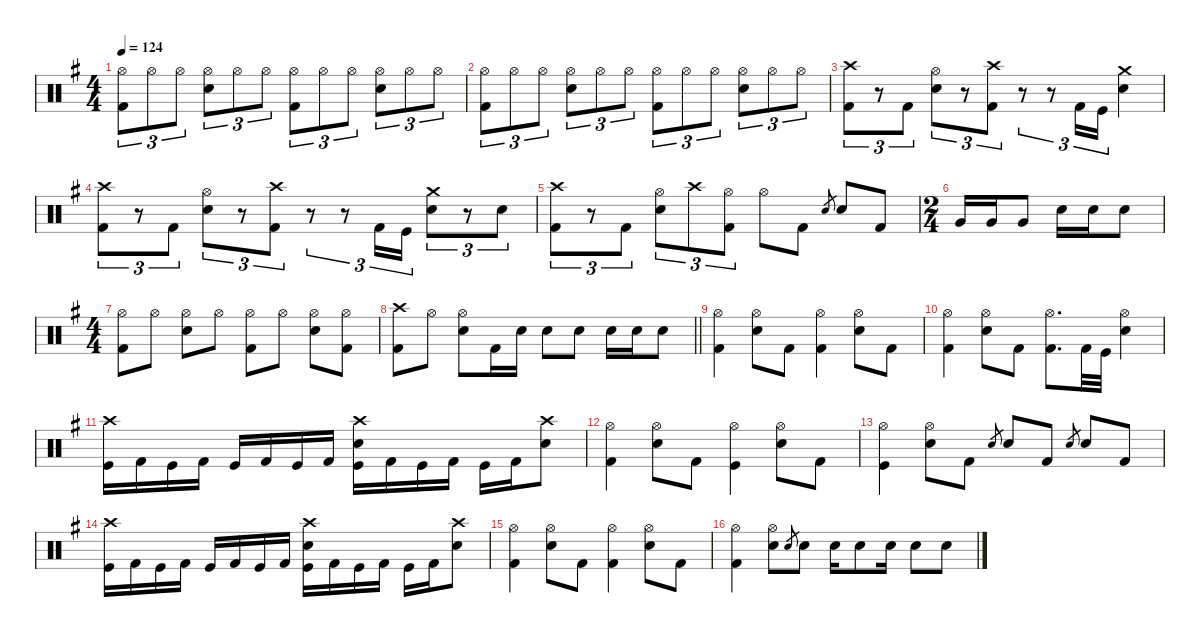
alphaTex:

\defaultSystemsLayout 4
\hideDynamics
\bracketExtendMode nobrackets
\singleTrackTrackNamePolicy hidden
\multiTrackTrackNamePolicy hidden
\otherSystemsTrackNameOrientation horizontal
\track ("Drums" "drm.") {defaultSystemsLayout 4 instrument percussion}
\staff {score}
\articulation defaults
\ts (4 4)
\tempo 124
\clef neutral
\ks eminor
("Hi-Hat (open)"{acc forcenatural} "Kick (hit) 2"{acc forcenatural}).8{tu (3 2) dy mf beam Down} "Hi-Hat (open)"{acc forcenatural}.8{tu (3 2) beam Down} "Hi-Hat (open)"{acc forcenatural}.8{tu (3 2) beam Down} ("Hi-Hat (open)"{acc forcenatural} "Snare (hit) 2"{acc forcenatural}).8{tu (3 2) beam Down} "Hi-Hat (open)"{acc forcenatural}.8{tu (3 2) beam Down} "Hi-Hat (open)"{acc forcenatural}.8{tu (3 2) beam Down} ("Hi-Hat (open)"{acc forcenatural} "Kick (hit) 2"{acc forcenatural}).8{tu (3 2) beam Down} "Hi-Hat (open)"{acc forcenatural}.8{tu (3 2) beam Down} "Hi-Hat (open)"{acc forcenatural}.8{tu (3 2) beam Down} ("Hi-Hat (open)"{acc forcenatural} "Snare (hit) 2"{acc forcenatural}).8{tu (3 2) beam Down} "Hi-Hat (open)"{acc forcenatural}.8{tu (3 2) beam Down} "Hi-Hat (open)"{acc forcenatural}.8{tu (3 2) beam Down} |
("Hi-Hat (open)"{acc forcenatural} "Kick (hit) 2"{acc forcenatural}).8{tu (3 2) beam Down} "Hi-Hat (open)"{acc forcenatural}.8{tu (3 2) beam Down} "Hi-Hat (open)"{acc forcenatural}.8{tu (3 2) beam Down} ("Hi-Hat (open)"{acc forcenatural} "Snare (hit) 2"{acc forcenatural}).8{tu (3 2) beam Down} "Hi-Hat (open)"{acc forcenatural}.8{tu (3 2) beam Down} "Hi-Hat (open)"{acc forcenatural}.8{tu (3 2) beam Down} ("Hi-Hat (open)"{acc forcenatural} "Kick (hit) 2"{acc forcenatural}).8{tu (3 2) beam Down} "Hi-Hat (open)"{acc forcenatural}.8{tu (3 2) beam Down} "Hi-Hat (open)"{acc forcenatural}.8{tu (3 2) beam Down} ("Hi-Hat (open)"{acc forcenatural} "Snare (hit) 2"{acc forcenatural}).8{tu (3 2) beam Down} "Hi-Hat (open)"{acc forcenatural}.8{tu (3 2) beam Down} "Hi-Hat (open)"{acc forcenatural}.8{tu (3 2) beam Down} |
("Crash high (hit)"{acc forcenatural} "Kick (hit) 2"{acc forcenatural}).8{tu (3 2) beam Down} r.8{tu (3 2) beam Down} "Kick (hit) 2"{acc forcenatural}.8{tu (3 2) dy ff beam Down} ("Hi-Hat (open)"{acc forcenatural} "Snare (hit) 2"{acc forcenatural}).8{tu (3 2) dy mp beam Down} r.8{tu (3 2) beam Down} ("Crash high (hit)"{acc forcenatural} "Kick (hit) 2"{acc forcenatural}).8{tu (3 2) beam Down} r.8{tu (3 2) beam Down} r.8{tu (3 2) beam Down} "Kick (hit) 2"{acc forcenatural}.16{tu (3 2) dy ff beam Up} "Kick (hit)"{acc forcenatural}.16{tu (3 2) beam Up} ("Crash medium (hit)"{acc forcenatural} "Snare (hit) 2"{acc forcenatural}).4{dy mf beam Down} |
("Crash high (hit)"{acc forcenatural} "Kick (hit) 2"{acc forcenatural}).8{tu (3 2) beam Down} r.8{tu (3 2) beam Down} "Kick (hit) 2"{acc forcenatural}.8{tu (3 2) dy ff beam Down} ("Hi-Hat (open)"{acc forcenatural} "Snare (hit) 2"{acc forcenatural}).8{tu (3 2) dy mf beam Down} r.8{tu (3 2) beam Down} ("Crash high (hit)"{acc forcenatural} "Kick (hit) 2"{acc forcenatural}).8{tu (3 2) dy mp beam Down} r.8{tu (3 2) beam Down} r.8{tu (3 2) beam Down} "Kick (hit) 2"{acc forcenatural}.16{tu (3 2) dy ff beam Up} "Kick (hit)"{acc forcenatural}.16{tu (3 2) beam Up} ("Crash medium (hit)"{acc forcenatural} "Snare (hit) 2"{acc forcenatural}).8{tu (3 2) dy mf beam Down} r.8{tu (3 2) beam Down} "Snare (hit) 2"{acc forcenatural}.8{tu (3 2) dy ff beam Down} |
("Crash high (hit)"{acc forcenatural} "Kick (hit) 2"{acc forcenatural}).8{tu (3 2) dy mf beam Down} r.8{tu (3 2) beam Down} "Kick (hit) 2"{acc forcenatural}.8{tu (3 2) dy ff beam Down} ("Hi-Hat (open)"{acc forcenatural} "Snare (hit) 2"{acc forcenatural}).8{tu (3 2) dy mf beam Down} "Crash high (hit)"{acc forcenatural}.8{tu (3 2) dy ppp beam Down} ("Hi-Hat (open)"{acc forcenatural} "Kick (hit) 2"{acc forcenatural}).8{tu (3 2) dy mf beam Down} "Hi-Hat (open)"{acc forcenatural}.8{dy ppp beam Down} "Kick (hit) 2"{acc forcenatural}.8{dy ff beam Down} "Electric Snare (hit)"{acc forcenatural}.8{gr dy mp beam Up} "Snare (hit) 2"{acc forcenatural}.8{dy ff beam Up} "Kick (hit) 2"{acc forcenatural}.8{beam Up} |
\ts (2 4)
\beaming (8 2 2)
"Very Low Tom (hit)"{acc forcenatural}.16{dy f beam Up} "Very Low Tom (hit)"{acc forcenatural}.16{beam Up} "Very Low Tom (hit)"{acc forcenatural}.8{beam Up} "Snare (hit) 2"{acc forcenatural}.16{dy ff beam Down} "Snare (hit) 2"{acc forcenatural}.16{beam Down} "Snare (hit) 2"{acc forcenatural}.8{beam Down} |
\ts (4 4)
\beaming (8 2 2 2 2)
("Hi-Hat (open)"{acc forcenatural} "Kick (hit) 2"{acc forcenatural}).8{dy mf beam Down} "Hi-Hat (open)"{acc forcenatural}.8{beam Down} ("Hi-Hat (open)"{acc forcenatural} "Snare (hit) 2"{acc forcenatural}).8{beam Down} "Hi-Hat (open)"{acc forcenatural}.8{beam Down} ("Hi-Hat (open)"{acc forcenatural} "Kick (hit) 2"{acc forcenatural}).8{beam Down} "Hi-Hat (open)"{acc forcenatural}.8{beam Down} ("Hi-Hat (open)"{acc forcenatural} "Snare (hit) 2"{acc forcenatural}).8{beam Down} ("Hi-Hat (open)"{acc forcenatural} "Kick (hit) 2"{acc forcenatural}).8{beam Down} |
\barLineRight lightlight
("Crash high (hit)"{acc forcenatural} "Kick (hit) 2"{acc forcenatural}).8{beam Down} "Hi-Hat (open)"{acc forcenatural}.8{beam Down} ("Hi-Hat (open)"{acc forcenatural} "Snare (hit) 2"{acc forcenatural}).8{beam Down} "Kick (hit) 2"{acc forcenatural}.16{dy ff beam Down} "Snare (hit) 2"{acc forcenatural}.16{beam Down} "Snare (hit) 2"{acc forcenatural}.8{beam Down} "Snare (hit) 2"{acc forcenatural}.8{beam Down} "Snare (hit) 2"{acc forcenatural}.16{beam Down} "Snare (hit) 2"{acc forcenatural}.16{beam Down} "Snare (hit) 2"{acc forcenatural}.8{beam Down} |
("Hi-Hat (open)"{acc forcenatural} "Kick (hit) 2"{acc forcenatural}).4{dy mf beam Down} ("Hi-Hat (open)"{acc forcenatural} "Snare (hit) 2"{acc forcenatural}).8{beam Down} "Kick (hit) 2"{acc forcenatural}.8{dy ff beam Down} ("Hi-Hat (open)"{acc forcenatural} "Kick (hit) 2"{acc forcenatural}).4{dy mf beam Down} ("Hi-Hat (open)"{acc forcenatural} "Snare (hit) 2"{acc forcenatural}).8{beam Down} "Kick (hit) 2"{acc forcenatural}.8{dy ff beam Down} |
("Hi-Hat (open)"{acc forcenatural} "Kick (hit) 2"{acc forcenatural}).4{dy mf beam Down} ("Hi-Hat (open)"{acc forcenatural} "Snare (hit) 2"{acc forcenatural}).8{beam Down} "Kick (hit) 2"{acc forcenatural}.8{dy ff beam Down} ("Hi-Hat (open)"{acc forcenatural} "Kick (hit) 2"{acc forcenatural}).8{d dy mf beam Down} "Kick (hit) 2"{acc forcenatural}.32{dy ff beam Down} "Kick (hit)"{acc forcenatural}.32{beam Down} ("Hi-Hat (open)"{acc forcenatural} "Snare (hit) 2"{acc forcenatural}).4{dy mf beam Down} |
("Crash high (hit)"{acc forcenatural} "Kick (hit)"{acc forcenatural}).16{beam Down} "Kick (hit) 2"{acc forcenatural}.16{dy ff beam Down} "Kick (hit)"{acc forcenatural}.16{beam Down} "Kick (hit) 2"{acc forcenatural}.16{beam Down} "Kick (hit)"{acc forcenatural}.16{beam Up} "Kick (hit) 2"{acc forcenatural}.16{beam Up} "Kick (hit)"{acc forcenatural}.16{beam Up} "Kick (hit) 2"{acc forcenatural}.16{beam Up} ("Crash high (hit)"{acc forcenatural} "Snare (hit) 2"{acc forcenatural} "Kick (hit)"{acc forcenatural}).16{dy mf beam Down} "Kick (hit) 2"{acc forcenatural}.16{dy ff beam Down} "Kick (hit)"{acc forcenatural}.16{beam Down} "Kick (hit) 2"{acc forcenatural}.16{beam Down} "Kick (hit)"{acc forcenatural}.16{beam Down} "Kick (hit) 2"{acc forcenatural}.16{beam Down} ("Crash high (hit)"{acc forcenatural} "Snare (hit) 2"{acc forcenatural}).8{dy mf beam Down} |
("Hi-Hat (open)"{acc forcenatural} "Kick (hit) 2"{acc forcenatural}).4{beam Down} ("Hi-Hat (open)"{acc forcenatural} "Snare (hit) 2"{acc forcenatural}).8{beam Down} "Kick (hit) 2"{acc forcenatural}.8{dy ff beam Down} ("Hi-Hat (open)"{acc forcenatural} "Kick (hit)"{acc forcenatural}).4{dy mf beam Down} ("Hi-Hat (open)"{acc forcenatural} "Snare (hit) 2"{acc forcenatural}).8{beam Down} "Kick (hit) 2"{acc forcenatural}.8{dy ff beam Down} |
("Hi-Hat (open)"{acc forcenatural} "Kick (hit)"{acc forcenatural}).4{dy mf beam Down} ("Hi-Hat (open)"{acc forcenatural} "Snare (hit) 2"{acc forcenatural}).8{beam Down} "Kick (hit) 2"{acc forcenatural}.8{dy ff beam Down} "Electric Snare (hit)"{acc forcenatural}.8{gr dy mp beam Up} "Snare (hit) 2"{acc forcenatural}.8{dy ff beam Up} "Kick (hit) 2"{acc forcenatural}.8{beam Up} "Electric Snare (hit)"{acc forcenatural}.8{gr dy mp beam Up} "Snare (hit) 2"{acc forcenatural}.8{dy ff beam Up} "Kick (hit) 2"{acc forcenatural}.8{beam Up} |
("Crash high (hit)"{acc forcenatural} "Kick (hit)"{acc forcenatural}).16{dy mf beam Down} "Kick (hit) 2"{acc forcenatural}.16{dy ff beam Down} "Kick (hit)"{acc forcenatural}.16{beam Down} "Kick (hit) 2"{acc forcenatural}.16{beam Down} "Kick (hit)"{acc forcenatural}.16{beam Up} "Kick (hit) 2"{acc forcenatural}.16{beam Up} "Kick (hit)"{acc forcenatural}.16{beam Up} "Kick (hit) 2"{acc forcenatural}.16{beam Up} ("Crash high (hit)"{acc forcenatural} "Snare (hit) 2"{acc forcenatural} "Kick (hit)"{acc forcenatural}).16{dy mf beam Down} "Kick (hit) 2"{acc forcenatural}.16{dy ff beam Down} "Kick (hit)"{acc forcenatural}.16{beam Down} "Kick (hit) 2"{acc forcenatural}.16{beam Down} "Kick (hit)"{acc forcenatural}.16{beam Down} "Kick (hit) 2"{acc forcenatural}.16{beam Down} ("Crash high (hit)"{acc forcenatural} "Snare (hit) 2"{acc forcenatural}).8{dy mp beam Down} |
("Hi-Hat (open)"{acc forcenatural} "Kick (hit) 2"{acc forcenatural}).4{dy f beam Down} ("Hi-Hat (open)"{acc forcenatural} "Snare (hit) 2"{acc forcenatural}).8{dy mp beam Down} "Kick (hit) 2"{acc forcenatural}.8{dy ff beam Down} ("Hi-Hat (open)"{acc forcenatural} "Kick (hit) 2"{acc forcenatural}).4{dy mp beam Down} ("Hi-Hat (open)"{acc forcenatural} "Snare (hit) 2"{acc forcenatural}).8{beam Down} "Kick (hit) 2"{acc forcenatural}.8{dy ff beam Down} |
("Hi-Hat (open)"{acc forcenatural} "Kick (hit) 2"{acc forcenatural}).4{dy mp beam Down} ("Hi-Hat (open)"{acc forcenatural} "Snare (hit) 2"{acc forcenatural}).8{beam Down} "Electric Snare (hit)"{acc forcenatural}.8{gr beam Up} "Snare (hit) 2"{acc forcenatural}.8{dy ff beam Down} "Snare (hit) 2"{acc forcenatural}.16{beam Down} "Snare (hit) 2"{acc forcenatural}.8{beam Down} "Snare (hit) 2"{acc forcenatural}.16{beam Down} "Snare (hit) 2"{acc forcenatural}.8{beam Down} "Snare (hit) 2"{acc forcenatural}.8{beam Down}
